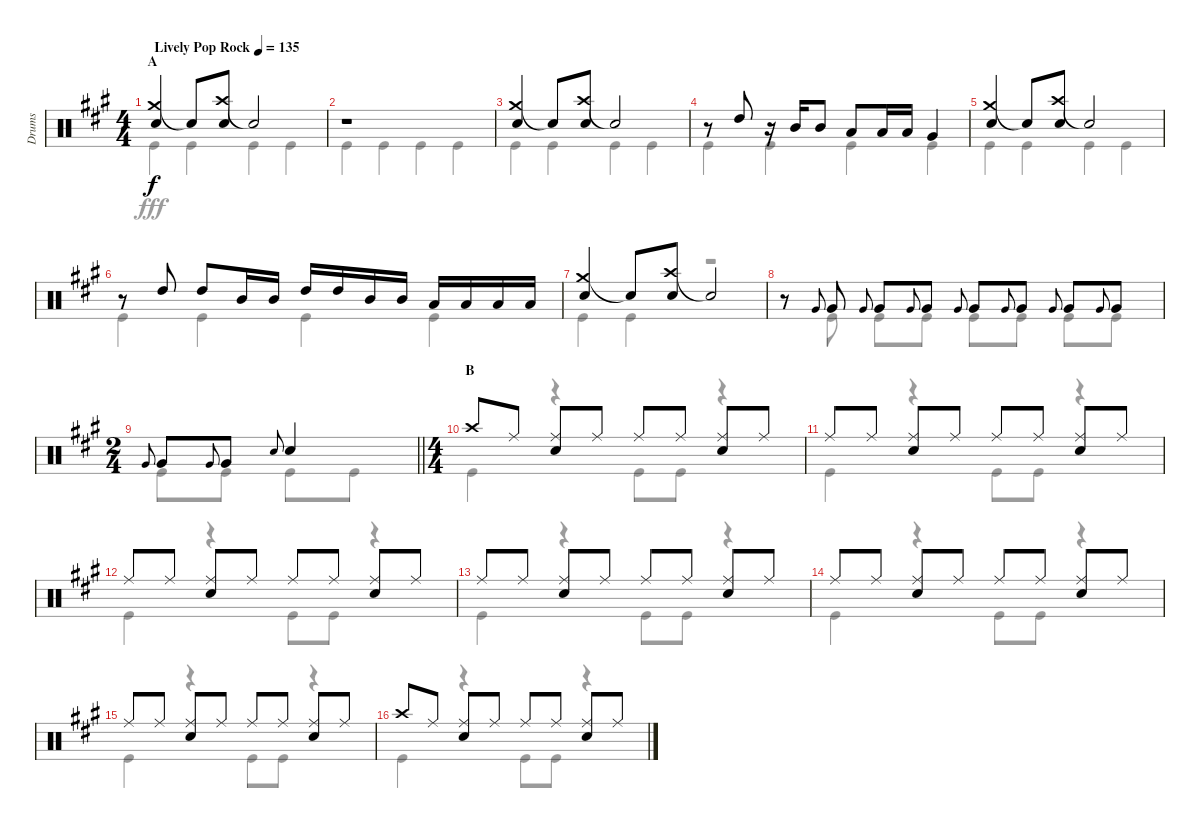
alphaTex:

\track ("Drums" "Drums") {instrument percussion}
\staff {score}
\articulation defaults
\voice
\ts (4 4)
\section ("" "A")
\tempo (135 "Lively Pop Rock")
\clef neutral
\ks a
("Crash medium (hit)" "Snare (hit) 2").4{dy f} "Snare (hit)"{t}.8 ("Crash high (hit)" "Snare (hit) 2").8 "Snare (hit)"{t}.2 |
r.1 |
("Crash medium (hit)" "Snare (hit) 2").4 "Snare (hit)"{t}.8 ("Crash high (hit)" "Snare (hit) 2").8 "Snare (hit)"{t}.2 |
r.8 "High Tom (hit)".8 r.16 "Mid Tom (hit)".16 "Mid Tom (hit)".8 "Low Tom (hit)".8 "Low Tom (hit)".16 "Low Tom (hit)".16 "Very Low Tom (hit)".4 |
("Crash medium (hit)" "Snare (hit) 2").4 "Snare (hit)"{t}.8 ("Crash high (hit)" "Snare (hit) 2").8 "Snare (hit)"{t}.2 |
r.8 "High Tom (hit)".8 "High Tom (hit)".8 "Mid Tom (hit)".16 "Mid Tom (hit)".16 "High Tom (hit)".16 "High Tom (hit)".16 "Mid Tom (hit)".16 "Mid Tom (hit)".16 "Low Tom (hit)".16 "Low Tom (hit)".16 "Low Tom (hit)".16 "Low Tom (hit)".16 |
("Crash medium (hit)" "Snare (hit) 2").4 "Snare (hit)"{t}.8 ("Crash high (hit)" "Snare (hit) 2").8 "Snare (hit)"{t}.2 |
r.8 "Very Low Tom (hit)".8{gr onbeat} "Very Low Tom (hit)".8 "Very Low Tom (hit)".8{gr onbeat} "Very Low Tom (hit)".8 "Very Low Tom (hit)".8{gr onbeat} "Very Low Tom (hit)".8 "Very Low Tom (hit)".8{gr onbeat} "Very Low Tom (hit)".8 "Very Low Tom (hit)".8{gr onbeat} "Very Low Tom (hit)".8 "Very Low Tom (hit)".8{gr onbeat} "Very Low Tom (hit)".8 "Very Low Tom (hit)".8{gr onbeat} "Very Low Tom (hit)".8 |
\ts (2 4)
\barLineRight lightlight "Very Low Tom (hit)".8{gr onbeat} "Very Low Tom (hit)".8 "Very Low Tom (hit)".8{gr onbeat} "Very Low Tom (hit)".8 "Snare (hit) 2".8{gr onbeat} "Snare (hit) 2".4
|
\ts (4 4)
\section ("" "B")
"Crash high (hit)".8 "Ride (middle)".8 ("Ride (middle)" "Snare (hit) 2").8 "Ride (middle)".8 "Ride (middle)".8 "Ride (middle)".8 ("Ride (middle)" "Snare (hit) 2").8 "Ride (middle)".8 |
"Ride (middle)".8 "Ride (middle)".8 ("Ride (middle)" "Snare (hit) 2").8 "Ride (middle)".8 "Ride (middle)".8 "Ride (middle)".8 ("Ride (middle)" "Snare (hit) 2").8 "Ride (middle)".8 |
"Ride (middle)".8 "Ride (middle)".8 ("Ride (middle)" "Snare (hit) 2").8 "Ride (middle)".8 "Ride (middle)".8 "Ride (middle)".8 ("Ride (middle)" "Snare (hit) 2").8 "Ride (middle)".8 |
"Ride (middle)".8 "Ride (middle)".8 ("Ride (middle)" "Snare (hit) 2").8 "Ride (middle)".8 "Ride (middle)".8 "Ride (middle)".8 ("Ride (middle)" "Snare (hit) 2").8 "Ride (middle)".8 |
"Ride (middle)".8 "Ride (middle)".8 ("Ride (middle)" "Snare (hit) 2").8 "Ride (middle)".8 "Ride (middle)".8 "Ride (middle)".8 ("Ride (middle)" "Snare (hit) 2").8 "Ride (middle)".8 |
"Ride (middle)".8 "Ride (middle)".8 ("Ride (middle)" "Snare (hit) 2").8 "Ride (middle)".8 "Ride (middle)".8 "Ride (middle)".8 ("Ride (middle)" "Snare (hit) 2").8 "Ride (middle)".8 |
"Crash high (hit)".8 "Ride (middle)".8 ("Ride (middle)" "Snare (hit) 2").8 "Ride (middle)".8 "Ride (middle)".8 "Ride (middle)".8 ("Ride (middle)" "Snare (hit) 2").8 "Ride (middle)".8
\voice
\clef neutral
\ottava regular
\simile none
\ks a "Kick (hit)".4{dy fff} "Kick (hit)".4 "Kick (hit)".4 "Kick (hit)".4
|
"Kick (hit)".4 "Kick (hit)".4 "Kick (hit)".4 "Kick (hit)".4 |
"Kick (hit)".4 "Kick (hit)".4 "Kick (hit)".4 "Kick (hit)".4 |
"Kick (hit)".4 "Kick (hit)".4 "Kick (hit)".4 "Kick (hit)".4 |
"Kick (hit)".4 "Kick (hit)".4 "Kick (hit)".4 "Kick (hit)".4 |
"Kick (hit)".4 "Kick (hit)".4 "Kick (hit)".4 "Kick (hit)".4 |
"Kick (hit)".4 "Kick (hit)".4 r.2 |
r.8 "Kick (hit)".8 "Kick (hit)".8 "Kick (hit)".8 "Kick (hit)".8 "Kick (hit)".8 "Kick (hit)".8 "Kick (hit)".8 |
\barLineRight lightlight "Kick (hit)".8 "Kick (hit)".8 "Kick (hit)".8 "Kick (hit)".8
|
"Kick (hit)".4 r.4 "Kick (hit)".8 "Kick (hit)".8 r.4 |
"Kick (hit)".4 r.4 "Kick (hit)".8 "Kick (hit)".8 r.4 |
"Kick (hit)".4 r.4 "Kick (hit)".8 "Kick (hit)".8 r.4 |
"Kick (hit)".4 r.4 "Kick (hit)".8 "Kick (hit)".8 r.4 |
"Kick (hit)".4 r.4 "Kick (hit)".8 "Kick (hit)".8 r.4 |
"Kick (hit)".4 r.4 "Kick (hit)".8 "Kick (hit)".8 r.4 |
"Kick (hit)".4 r.4 "Kick (hit)".8 "Kick (hit)".8 r.4
